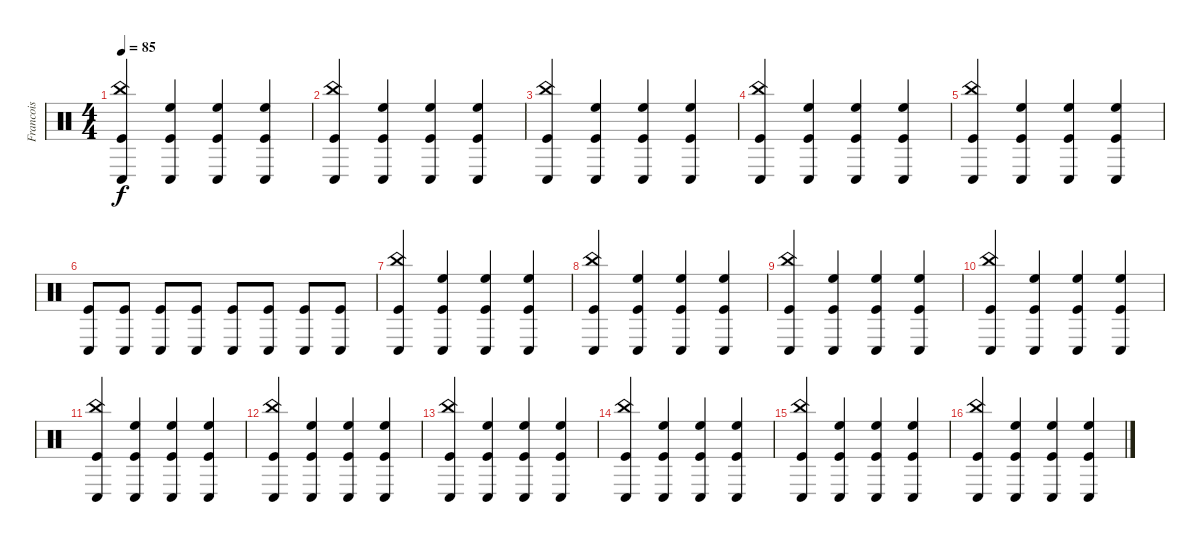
\track ("Francois" "Francois") {instrument percussion}
\staff {score}
\articulation defaults
\ts (4 4)
\tempo 85
\clef neutral
\ks c
("China (hit)" "Kick (hit)" "Conga low (hit)").4{dy f} ("High Floor Tom (hit)" "Kick (hit)" "Conga low (hit)").4 ("High Floor Tom (hit)" "Kick (hit)" "Conga low (hit)").4 ("High Floor Tom (hit)" "Kick (hit)" "Conga low (hit)").4 |
("China (hit)" "Kick (hit)" "Conga low (hit)").4 ("High Floor Tom (hit)" "Kick (hit)" "Conga low (hit)").4 ("High Floor Tom (hit)" "Kick (hit)" "Conga low (hit)").4 ("High Floor Tom (hit)" "Kick (hit)" "Conga low (hit)").4 |
("China (hit)" "Kick (hit)" "Conga low (hit)").4 ("High Floor Tom (hit)" "Kick (hit)" "Conga low (hit)").4 ("High Floor Tom (hit)" "Kick (hit)" "Conga low (hit)").4 ("High Floor Tom (hit)" "Kick (hit)" "Conga low (hit)").4 |
("China (hit)" "Kick (hit)" "Conga low (hit)").4 ("High Floor Tom (hit)" "Kick (hit)" "Conga low (hit)").4 ("High Floor Tom (hit)" "Kick (hit)" "Conga low (hit)").4 ("High Floor Tom (hit)" "Kick (hit)" "Conga low (hit)").4 |
("China (hit)" "Kick (hit)" "Conga low (hit)").4 ("High Floor Tom (hit)" "Kick (hit)" "Conga low (hit)").4 ("High Floor Tom (hit)" "Kick (hit)" "Conga low (hit)").4 ("High Floor Tom (hit)" "Kick (hit)" "Conga low (hit)").4 |
("Kick (hit)" "Conga low (hit)").8 ("Kick (hit)" "Conga low (hit)").8 ("Kick (hit)" "Conga low (hit)").8 ("Kick (hit)" "Conga low (hit)").8 ("Kick (hit)" "Conga low (hit)").8 ("Kick (hit)" "Conga low (hit)").8 ("Kick (hit)" "Conga low (hit)").8 ("Kick (hit)" "Conga low (hit)").8 |
("China (hit)" "Kick (hit)" "Conga low (hit)").4 ("High Floor Tom (hit)" "Kick (hit)" "Conga low (hit)").4 ("High Floor Tom (hit)" "Kick (hit)" "Conga low (hit)").4 ("High Floor Tom (hit)" "Kick (hit)" "Conga low (hit)").4 |
("China (hit)" "Kick (hit)" "Conga low (hit)").4 ("High Floor Tom (hit)" "Kick (hit)" "Conga low (hit)").4 ("High Floor Tom (hit)" "Kick (hit)" "Conga low (hit)").4 ("High Floor Tom (hit)" "Kick (hit)" "Conga low (hit)").4 |
("China (hit)" "Kick (hit)" "Conga low (hit)").4 ("High Floor Tom (hit)" "Kick (hit)" "Conga low (hit)").4 ("High Floor Tom (hit)" "Kick (hit)" "Conga low (hit)").4 ("High Floor Tom (hit)" "Kick (hit)" "Conga low (hit)").4 |
("China (hit)" "Kick (hit)" "Conga low (hit)").4 ("High Floor Tom (hit)" "Kick (hit)" "Conga low (hit)").4 ("High Floor Tom (hit)" "Kick (hit)" "Conga low (hit)").4 ("High Floor Tom (hit)" "Kick (hit)" "Conga low (hit)").4 |
("China (hit)" "Kick (hit)" "Conga low (hit)").4 ("High Floor Tom (hit)" "Kick (hit)" "Conga low (hit)").4 ("High Floor Tom (hit)" "Kick (hit)" "Conga low (hit)").4 ("High Floor Tom (hit)" "Kick (hit)" "Conga low (hit)").4 |
("China (hit)" "Kick (hit)" "Conga low (hit)").4 ("High Floor Tom (hit)" "Kick (hit)" "Conga low (hit)").4 ("High Floor Tom (hit)" "Kick (hit)" "Conga low (hit)").4 ("High Floor Tom (hit)" "Kick (hit)" "Conga low (hit)").4 |
("China (hit)" "Kick (hit)" "Conga low (hit)").4 ("High Floor Tom (hit)" "Kick (hit)" "Conga low (hit)").4 ("High Floor Tom (hit)" "Kick (hit)" "Conga low (hit)").4 ("High Floor Tom (hit)" "Kick (hit)" "Conga low (hit)").4 |
("China (hit)" "Kick (hit)" "Conga low (hit)").4 ("High Floor Tom (hit)" "Kick (hit)" "Conga low (hit)").4 ("High Floor Tom (hit)" "Kick (hit)" "Conga low (hit)").4 ("High Floor Tom (hit)" "Kick (hit)" "Conga low (hit)").4 |
("China (hit)" "Kick (hit)" "Conga low (hit)").4 ("High Floor Tom (hit)" "Kick (hit)" "Conga low (hit)").4 ("High Floor Tom (hit)" "Kick (hit)" "Conga low (hit)").4 ("High Floor Tom (hit)" "Kick (hit)" "Conga low (hit)").4 |
("China (hit)" "Kick (hit)" "Conga low (hit)").4 ("High Floor Tom (hit)" "Kick (hit)" "Conga low (hit)").4 ("High Floor Tom (hit)" "Kick (hit)" "Conga low (hit)").4 ("High Floor Tom (hit)" "Kick (hit)" "Conga low (hit)").4
